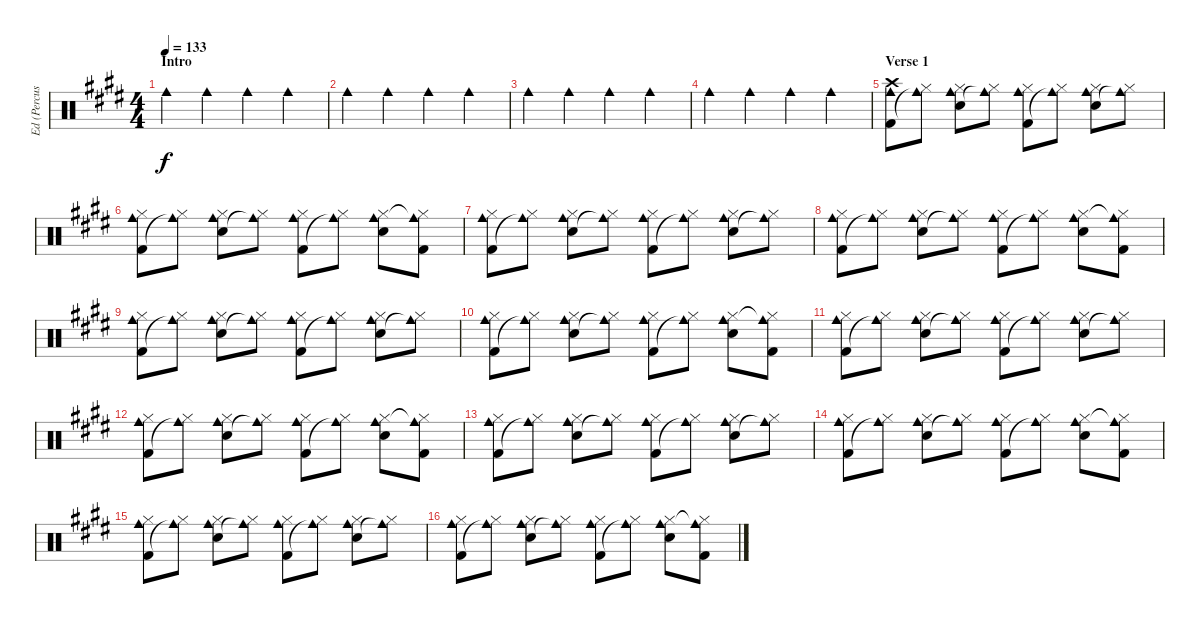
\track ("Ed (Percussion/Drums)" "Ed (Percus") {instrument percussion}
\staff {score}
\articulation defaults
\ts (4 4)
\section ("" "Intro")
\tempo 133
\clef neutral
\ks e "Cowbell medium (hit)".4{dy f} "Cowbell medium (hit)".4 "Cowbell medium (hit)".4 "Cowbell medium (hit)".4
|
"Cowbell medium (hit)".4 "Cowbell medium (hit)".4 "Cowbell medium (hit)".4 "Cowbell medium (hit)".4 |
"Cowbell medium (hit)".4 "Cowbell medium (hit)".4 "Cowbell medium (hit)".4 "Cowbell medium (hit)".4 |
"Cowbell medium (hit)".4 "Cowbell medium (hit)".4 "Cowbell medium (hit)".4 "Cowbell medium (hit)".4 |
\section ("" "Verse 1")
("Crash high (hit)" "Kick (hit) 2" "Cowbell medium (hit)").8 ("Hi-Hat (closed)" "Cowbell medium (hit)"{t}).8 ("Hi-Hat (closed)" "Snare (hit) 2" "Cowbell medium (hit)").8 ("Hi-Hat (closed)" "Cowbell medium (hit)"{t}).8 ("Hi-Hat (closed)" "Kick (hit) 2" "Cowbell medium (hit)").8 ("Hi-Hat (closed)" "Cowbell medium (hit)"{t}).8 ("Hi-Hat (closed)" "Snare (hit) 2" "Cowbell medium (hit)").8 ("Hi-Hat (closed)" "Cowbell medium (hit)"{t}).8 |
("Hi-Hat (closed)" "Kick (hit) 2" "Cowbell medium (hit)").8 ("Hi-Hat (closed)" "Cowbell medium (hit)"{t}).8 ("Hi-Hat (closed)" "Snare (hit) 2" "Cowbell medium (hit)").8 ("Hi-Hat (closed)" "Cowbell medium (hit)"{t}).8 ("Hi-Hat (closed)" "Kick (hit) 2" "Cowbell medium (hit)").8 ("Hi-Hat (closed)" "Cowbell medium (hit)"{t}).8 ("Hi-Hat (closed)" "Snare (hit) 2" "Cowbell medium (hit)").8 ("Hi-Hat (closed)" "Kick (hit) 2" "Cowbell medium (hit)"{t}).8 |
("Hi-Hat (closed)" "Kick (hit) 2" "Cowbell medium (hit)").8 ("Hi-Hat (closed)" "Cowbell medium (hit)"{t}).8 ("Hi-Hat (closed)" "Snare (hit) 2" "Cowbell medium (hit)").8 ("Hi-Hat (closed)" "Cowbell medium (hit)"{t}).8 ("Hi-Hat (closed)" "Kick (hit) 2" "Cowbell medium (hit)").8 ("Hi-Hat (closed)" "Cowbell medium (hit)"{t}).8 ("Hi-Hat (closed)" "Snare (hit) 2" "Cowbell medium (hit)").8 ("Hi-Hat (closed)" "Cowbell medium (hit)"{t}).8 |
("Hi-Hat (closed)" "Kick (hit) 2" "Cowbell medium (hit)").8 ("Hi-Hat (closed)" "Cowbell medium (hit)"{t}).8 ("Hi-Hat (closed)" "Snare (hit) 2" "Cowbell medium (hit)").8 ("Hi-Hat (closed)" "Cowbell medium (hit)"{t}).8 ("Hi-Hat (closed)" "Kick (hit) 2" "Cowbell medium (hit)").8 ("Hi-Hat (closed)" "Cowbell medium (hit)"{t}).8 ("Hi-Hat (closed)" "Snare (hit) 2" "Cowbell medium (hit)").8 ("Hi-Hat (closed)" "Kick (hit) 2" "Cowbell medium (hit)"{t}).8 |
("Hi-Hat (closed)" "Kick (hit) 2" "Cowbell medium (hit)").8 ("Hi-Hat (closed)" "Cowbell medium (hit)"{t}).8 ("Hi-Hat (closed)" "Snare (hit) 2" "Cowbell medium (hit)").8 ("Hi-Hat (closed)" "Cowbell medium (hit)"{t}).8 ("Hi-Hat (closed)" "Kick (hit) 2" "Cowbell medium (hit)").8 ("Hi-Hat (closed)" "Cowbell medium (hit)"{t}).8 ("Hi-Hat (closed)" "Snare (hit) 2" "Cowbell medium (hit)").8 ("Hi-Hat (closed)" "Cowbell medium (hit)"{t}).8 |
("Hi-Hat (closed)" "Kick (hit) 2" "Cowbell medium (hit)").8 ("Hi-Hat (closed)" "Cowbell medium (hit)"{t}).8 ("Hi-Hat (closed)" "Snare (hit) 2" "Cowbell medium (hit)").8 ("Hi-Hat (closed)" "Cowbell medium (hit)"{t}).8 ("Hi-Hat (closed)" "Kick (hit) 2" "Cowbell medium (hit)").8 ("Hi-Hat (closed)" "Cowbell medium (hit)"{t}).8 ("Hi-Hat (closed)" "Snare (hit) 2" "Cowbell medium (hit)").8 ("Hi-Hat (closed)" "Kick (hit) 2" "Cowbell medium (hit)"{t}).8 |
("Hi-Hat (closed)" "Kick (hit) 2" "Cowbell medium (hit)").8 ("Hi-Hat (closed)" "Cowbell medium (hit)"{t}).8 ("Hi-Hat (closed)" "Snare (hit) 2" "Cowbell medium (hit)").8 ("Hi-Hat (closed)" "Cowbell medium (hit)"{t}).8 ("Hi-Hat (closed)" "Kick (hit) 2" "Cowbell medium (hit)").8 ("Hi-Hat (closed)" "Cowbell medium (hit)"{t}).8 ("Hi-Hat (closed)" "Snare (hit) 2" "Cowbell medium (hit)").8 ("Hi-Hat (closed)" "Cowbell medium (hit)"{t}).8 |
("Hi-Hat (closed)" "Kick (hit) 2" "Cowbell medium (hit)").8 ("Hi-Hat (closed)" "Cowbell medium (hit)"{t}).8 ("Hi-Hat (closed)" "Snare (hit) 2" "Cowbell medium (hit)").8 ("Hi-Hat (closed)" "Cowbell medium (hit)"{t}).8 ("Hi-Hat (closed)" "Kick (hit) 2" "Cowbell medium (hit)").8 ("Hi-Hat (closed)" "Cowbell medium (hit)"{t}).8 ("Hi-Hat (closed)" "Snare (hit) 2" "Cowbell medium (hit)").8 ("Hi-Hat (closed)" "Kick (hit) 2" "Cowbell medium (hit)"{t}).8 |
("Hi-Hat (closed)" "Kick (hit) 2" "Cowbell medium (hit)").8 ("Hi-Hat (closed)" "Cowbell medium (hit)"{t}).8 ("Hi-Hat (closed)" "Snare (hit) 2" "Cowbell medium (hit)").8 ("Hi-Hat (closed)" "Cowbell medium (hit)"{t}).8 ("Hi-Hat (closed)" "Kick (hit) 2" "Cowbell medium (hit)").8 ("Hi-Hat (closed)" "Cowbell medium (hit)"{t}).8 ("Hi-Hat (closed)" "Snare (hit) 2" "Cowbell medium (hit)").8 ("Hi-Hat (closed)" "Cowbell medium (hit)"{t}).8 |
("Hi-Hat (closed)" "Kick (hit) 2" "Cowbell medium (hit)").8 ("Hi-Hat (closed)" "Cowbell medium (hit)"{t}).8 ("Hi-Hat (closed)" "Snare (hit) 2" "Cowbell medium (hit)").8 ("Hi-Hat (closed)" "Cowbell medium (hit)"{t}).8 ("Hi-Hat (closed)" "Kick (hit) 2" "Cowbell medium (hit)").8 ("Hi-Hat (closed)" "Cowbell medium (hit)"{t}).8 ("Hi-Hat (closed)" "Snare (hit) 2" "Cowbell medium (hit)").8 ("Hi-Hat (closed)" "Kick (hit) 2" "Cowbell medium (hit)"{t}).8 |
("Hi-Hat (closed)" "Kick (hit) 2" "Cowbell medium (hit)").8 ("Hi-Hat (closed)" "Cowbell medium (hit)"{t}).8 ("Hi-Hat (closed)" "Snare (hit) 2" "Cowbell medium (hit)").8 ("Hi-Hat (closed)" "Cowbell medium (hit)"{t}).8 ("Hi-Hat (closed)" "Kick (hit) 2" "Cowbell medium (hit)").8 ("Hi-Hat (closed)" "Cowbell medium (hit)"{t}).8 ("Hi-Hat (closed)" "Snare (hit) 2" "Cowbell medium (hit)").8 ("Hi-Hat (closed)" "Cowbell medium (hit)"{t}).8 |
("Hi-Hat (closed)" "Kick (hit) 2" "Cowbell medium (hit)").8 ("Hi-Hat (closed)" "Cowbell medium (hit)"{t}).8 ("Hi-Hat (closed)" "Snare (hit) 2" "Cowbell medium (hit)").8 ("Hi-Hat (closed)" "Cowbell medium (hit)"{t}).8 ("Hi-Hat (closed)" "Kick (hit) 2" "Cowbell medium (hit)").8 ("Hi-Hat (closed)" "Cowbell medium (hit)"{t}).8 ("Hi-Hat (closed)" "Snare (hit) 2" "Cowbell medium (hit)").8 ("Hi-Hat (closed)" "Kick (hit) 2" "Cowbell medium (hit)"{t}).8
